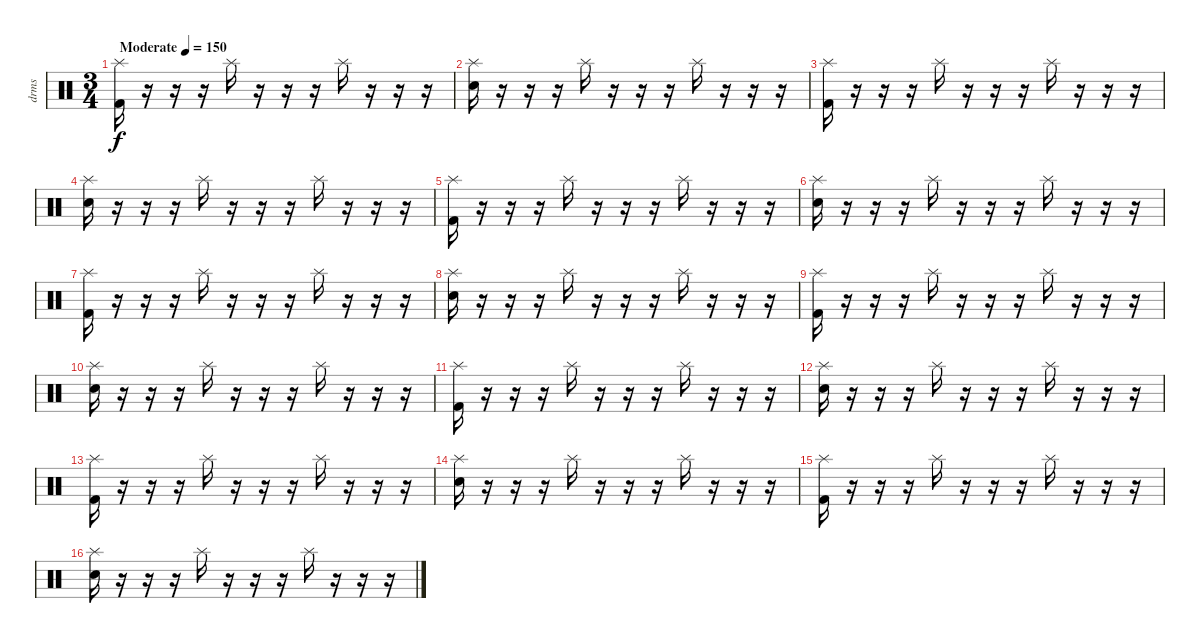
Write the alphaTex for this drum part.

\track ("drms" "drms") {instrument percussion}
\staff {score}
\articulation defaults
\ts (3 4)
\tempo (150 "Moderate")
\clef neutral
\ks c
("Splash (hit)" "Kick (hit) 2").16{dy f} r.16 r.16 r.16 "Splash (hit)".16 r.16 r.16 r.16 "Splash (hit)".16 r.16 r.16 r.16 |
("Splash (hit)" "Electric Snare (hit)").16 r.16 r.16 r.16 "Splash (hit)".16 r.16 r.16 r.16 "Splash (hit)".16 r.16 r.16 r.16 |
("Splash (hit)" "Kick (hit) 2").16 r.16 r.16 r.16 "Splash (hit)".16 r.16 r.16 r.16 "Splash (hit)".16 r.16 r.16 r.16 |
("Splash (hit)" "Electric Snare (hit)").16 r.16 r.16 r.16 "Splash (hit)".16 r.16 r.16 r.16 "Splash (hit)".16 r.16 r.16 r.16 |
("Splash (hit)" "Kick (hit) 2").16 r.16 r.16 r.16 "Splash (hit)".16 r.16 r.16 r.16 "Splash (hit)".16 r.16 r.16 r.16 |
("Splash (hit)" "Electric Snare (hit)").16 r.16 r.16 r.16 "Splash (hit)".16 r.16 r.16 r.16 "Splash (hit)".16 r.16 r.16 r.16 |
("Splash (hit)" "Kick (hit) 2").16 r.16 r.16 r.16 "Splash (hit)".16 r.16 r.16 r.16 "Splash (hit)".16 r.16 r.16 r.16 |
("Splash (hit)" "Electric Snare (hit)").16 r.16 r.16 r.16 "Splash (hit)".16 r.16 r.16 r.16 "Splash (hit)".16 r.16 r.16 r.16 |
("Splash (hit)" "Kick (hit) 2").16 r.16 r.16 r.16 "Splash (hit)".16 r.16 r.16 r.16 "Splash (hit)".16 r.16 r.16 r.16 |
("Splash (hit)" "Electric Snare (hit)").16 r.16 r.16 r.16 "Splash (hit)".16 r.16 r.16 r.16 "Splash (hit)".16 r.16 r.16 r.16 |
("Splash (hit)" "Kick (hit) 2").16 r.16 r.16 r.16 "Splash (hit)".16 r.16 r.16 r.16 "Splash (hit)".16 r.16 r.16 r.16 |
("Splash (hit)" "Electric Snare (hit)").16 r.16 r.16 r.16 "Splash (hit)".16 r.16 r.16 r.16 "Splash (hit)".16 r.16 r.16 r.16 |
("Splash (hit)" "Kick (hit) 2").16 r.16 r.16 r.16 "Splash (hit)".16 r.16 r.16 r.16 "Splash (hit)".16 r.16 r.16 r.16 |
("Splash (hit)" "Electric Snare (hit)").16 r.16 r.16 r.16 "Splash (hit)".16 r.16 r.16 r.16 "Splash (hit)".16 r.16 r.16 r.16 |
("Splash (hit)" "Kick (hit) 2").16 r.16 r.16 r.16 "Splash (hit)".16 r.16 r.16 r.16 "Splash (hit)".16 r.16 r.16 r.16 |
("Splash (hit)" "Electric Snare (hit)").16 r.16 r.16 r.16 "Splash (hit)".16 r.16 r.16 r.16 "Splash (hit)".16 r.16 r.16 r.16
